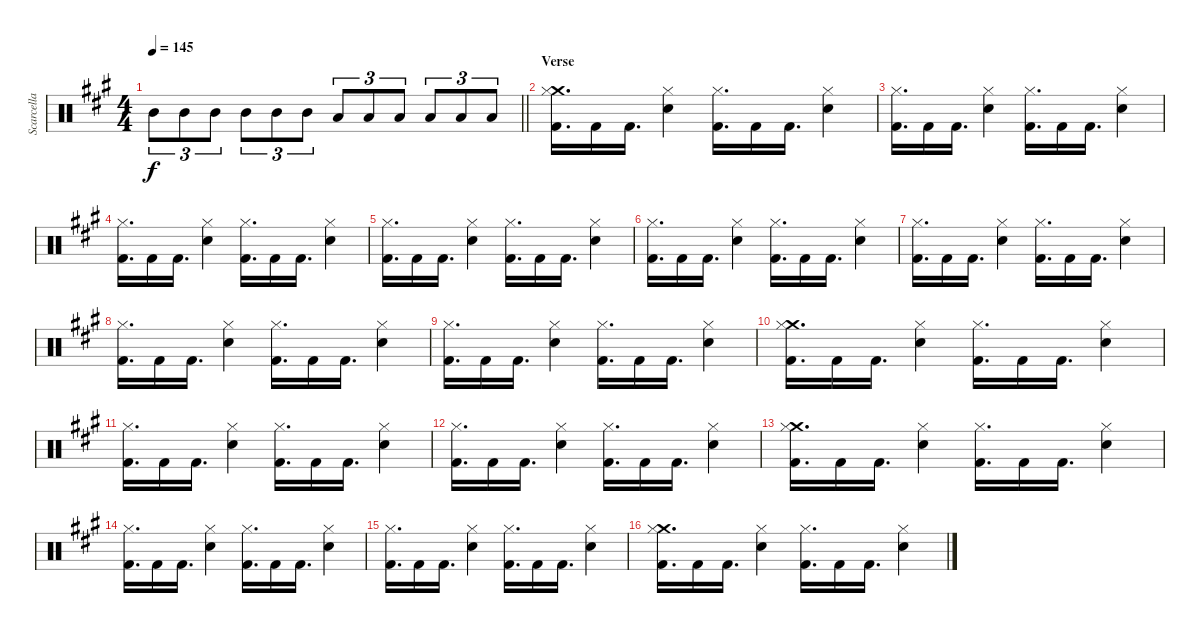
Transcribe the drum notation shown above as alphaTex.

\track ("Scarcella" "Scarcella") {instrument percussion}
\staff {score}
\articulation defaults
\ts (4 4)
\tempo 145
\clef neutral
\barLineRight lightlight
\ks f#minor "Mid Tom (hit)".8{tu (3 2) dy f} "Mid Tom (hit)".8{tu (3 2)} "Mid Tom (hit)".8{tu (3 2)} "Mid Tom (hit)".8{tu (3 2)} "Mid Tom (hit)".8{tu (3 2)} "Mid Tom (hit)".8{tu (3 2)} "Low Tom (hit)".8{tu (3 2)} "Low Tom (hit)".8{tu (3 2)} "Low Tom (hit)".8{tu (3 2)} "Low Tom (hit)".8{tu (3 2)} "Low Tom (hit)".8{tu (3 2)} "Low Tom (hit)".8{tu (3 2)}
|
\section ("" "Verse")
("Crash medium (hit)" "Hi-Hat (closed)" "Kick (hit) 2").16{d} "Kick (hit) 2".16 "Kick (hit) 2".16{d} ("Hi-Hat (closed)" "Snare (hit) 2").4 ("Hi-Hat (closed)" "Kick (hit) 2").16{d} "Kick (hit) 2".16 "Kick (hit) 2".16{d} ("Hi-Hat (closed)" "Snare (hit) 2").4 |
("Hi-Hat (closed)" "Kick (hit) 2").16{d} "Kick (hit) 2".16 "Kick (hit) 2".16{d} ("Hi-Hat (closed)" "Snare (hit) 2").4 ("Hi-Hat (closed)" "Kick (hit) 2").16{d} "Kick (hit) 2".16 "Kick (hit) 2".16{d} ("Hi-Hat (closed)" "Snare (hit) 2").4 |
("Hi-Hat (closed)" "Kick (hit) 2").16{d} "Kick (hit) 2".16 "Kick (hit) 2".16{d} ("Hi-Hat (closed)" "Snare (hit) 2").4 ("Hi-Hat (closed)" "Kick (hit) 2").16{d} "Kick (hit) 2".16 "Kick (hit) 2".16{d} ("Hi-Hat (closed)" "Snare (hit) 2").4 |
("Hi-Hat (closed)" "Kick (hit) 2").16{d} "Kick (hit) 2".16 "Kick (hit) 2".16{d} ("Hi-Hat (closed)" "Snare (hit) 2").4 ("Hi-Hat (closed)" "Kick (hit) 2").16{d} "Kick (hit) 2".16 "Kick (hit) 2".16{d} ("Hi-Hat (closed)" "Snare (hit) 2").4 |
("Hi-Hat (closed)" "Kick (hit) 2").16{d} "Kick (hit) 2".16 "Kick (hit) 2".16{d} ("Hi-Hat (closed)" "Snare (hit) 2").4 ("Hi-Hat (closed)" "Kick (hit) 2").16{d} "Kick (hit) 2".16 "Kick (hit) 2".16{d} ("Hi-Hat (closed)" "Snare (hit) 2").4 |
("Hi-Hat (closed)" "Kick (hit) 2").16{d} "Kick (hit) 2".16 "Kick (hit) 2".16{d} ("Hi-Hat (closed)" "Snare (hit) 2").4 ("Hi-Hat (closed)" "Kick (hit) 2").16{d} "Kick (hit) 2".16 "Kick (hit) 2".16{d} ("Hi-Hat (closed)" "Snare (hit) 2").4 |
("Hi-Hat (closed)" "Kick (hit) 2").16{d} "Kick (hit) 2".16 "Kick (hit) 2".16{d} ("Hi-Hat (closed)" "Snare (hit) 2").4 ("Hi-Hat (closed)" "Kick (hit) 2").16{d} "Kick (hit) 2".16 "Kick (hit) 2".16{d} ("Hi-Hat (closed)" "Snare (hit) 2").4 |
("Hi-Hat (closed)" "Kick (hit) 2").16{d} "Kick (hit) 2".16 "Kick (hit) 2".16{d} ("Hi-Hat (closed)" "Snare (hit) 2").4 ("Hi-Hat (closed)" "Kick (hit) 2").16{d} "Kick (hit) 2".16 "Kick (hit) 2".16{d} ("Hi-Hat (closed)" "Snare (hit) 2").4 |
("Crash medium (hit)" "Hi-Hat (closed)" "Kick (hit) 2").16{d} "Kick (hit) 2".16 "Kick (hit) 2".16{d} ("Hi-Hat (closed)" "Snare (hit) 2").4 ("Hi-Hat (closed)" "Kick (hit) 2").16{d} "Kick (hit) 2".16 "Kick (hit) 2".16{d} ("Hi-Hat (closed)" "Snare (hit) 2").4 |
("Hi-Hat (closed)" "Kick (hit) 2").16{d} "Kick (hit) 2".16 "Kick (hit) 2".16{d} ("Hi-Hat (closed)" "Snare (hit) 2").4 ("Hi-Hat (closed)" "Kick (hit) 2").16{d} "Kick (hit) 2".16 "Kick (hit) 2".16{d} ("Hi-Hat (closed)" "Snare (hit) 2").4 |
("Hi-Hat (closed)" "Kick (hit) 2").16{d} "Kick (hit) 2".16 "Kick (hit) 2".16{d} ("Hi-Hat (closed)" "Snare (hit) 2").4 ("Hi-Hat (closed)" "Kick (hit) 2").16{d} "Kick (hit) 2".16 "Kick (hit) 2".16{d} ("Hi-Hat (closed)" "Snare (hit) 2").4 |
("Crash medium (hit)" "Hi-Hat (closed)" "Kick (hit) 2").16{d} "Kick (hit) 2".16 "Kick (hit) 2".16{d} ("Hi-Hat (closed)" "Snare (hit) 2").4 ("Hi-Hat (closed)" "Kick (hit) 2").16{d} "Kick (hit) 2".16 "Kick (hit) 2".16{d} ("Hi-Hat (closed)" "Snare (hit) 2").4 |
("Hi-Hat (closed)" "Kick (hit) 2").16{d} "Kick (hit) 2".16 "Kick (hit) 2".16{d} ("Hi-Hat (closed)" "Snare (hit) 2").4 ("Hi-Hat (closed)" "Kick (hit) 2").16{d} "Kick (hit) 2".16 "Kick (hit) 2".16{d} ("Hi-Hat (closed)" "Snare (hit) 2").4 |
("Hi-Hat (closed)" "Kick (hit) 2").16{d} "Kick (hit) 2".16 "Kick (hit) 2".16{d} ("Hi-Hat (closed)" "Snare (hit) 2").4 ("Hi-Hat (closed)" "Kick (hit) 2").16{d} "Kick (hit) 2".16 "Kick (hit) 2".16{d} ("Hi-Hat (closed)" "Snare (hit) 2").4 |
("Crash medium (hit)" "Hi-Hat (closed)" "Kick (hit) 2").16{d} "Kick (hit) 2".16 "Kick (hit) 2".16{d} ("Hi-Hat (closed)" "Snare (hit) 2").4 ("Hi-Hat (closed)" "Kick (hit) 2").16{d} "Kick (hit) 2".16 "Kick (hit) 2".16{d} ("Hi-Hat (closed)" "Snare (hit) 2").4
